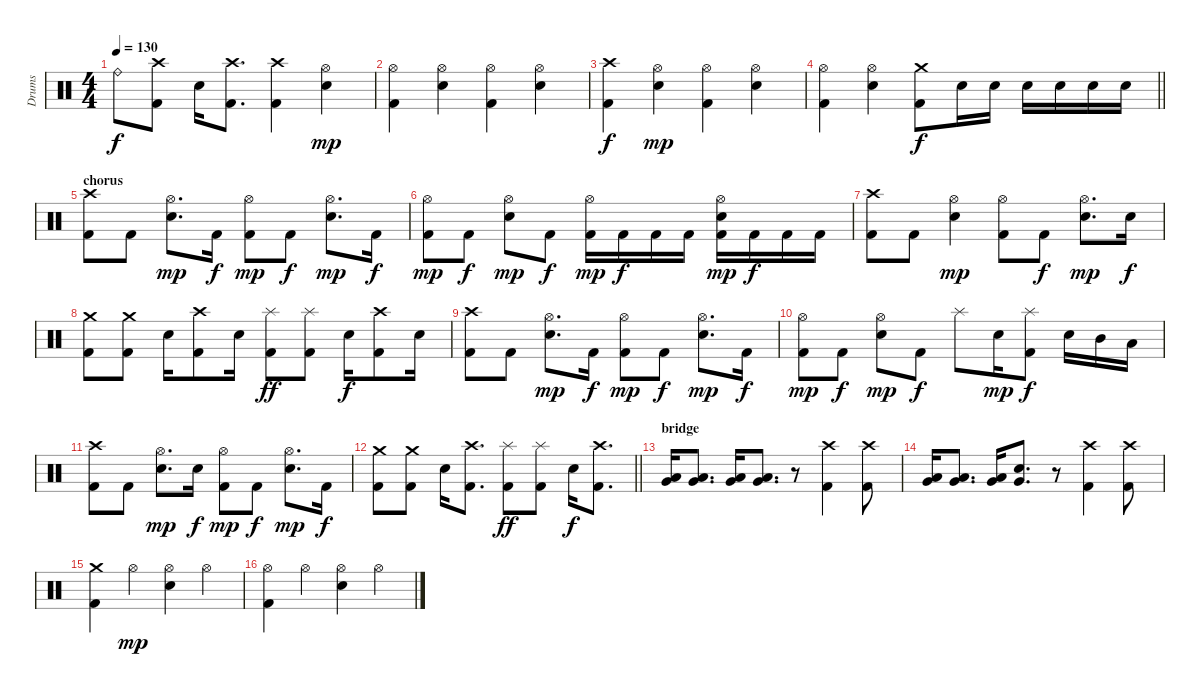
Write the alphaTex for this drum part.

\track ("Drums" "Drums") {instrument percussion}
\staff {score}
\articulation defaults
\ts (4 4)
\tempo 130
\clef neutral
\ks c "Ride (bell)".8{dy f}
("Crash high (hit)" "Kick (hit) 2").8 "Electric Snare (hit)".16 ("Crash high (hit)" "Kick (hit) 2").8{d} ("Crash high (hit)" "Kick (hit) 2").4 ("Hi-Hat (open)" "Electric Snare (hit)").4{dy mp} |
("Hi-Hat (open)" "Kick (hit) 2").4 ("Hi-Hat (open)" "Electric Snare (hit)").4 ("Hi-Hat (open)" "Kick (hit) 2").4 ("Hi-Hat (open)" "Electric Snare (hit)").4 |
("Crash high (hit)" "Kick (hit) 2").4{dy f} ("Hi-Hat (open)" "Electric Snare (hit)").4{dy mp} ("Hi-Hat (open)" "Kick (hit) 2").4 ("Hi-Hat (open)" "Electric Snare (hit)").4 |
\barLineRight lightlight
("Hi-Hat (open)" "Kick (hit) 2").4 ("Hi-Hat (open)" "Electric Snare (hit)").4 ("Crash medium (hit)" "Kick (hit) 2").8{dy f} "Electric Snare (hit)".16 "Electric Snare (hit)".16 "Electric Snare (hit)".16 "Electric Snare (hit)".16 "Electric Snare (hit)".16 "Electric Snare (hit)".16 |
\section ("" "chorus")
("Crash high (hit)" "Kick (hit) 2").8 "Kick (hit) 2".8 ("Hi-Hat (open)" "Electric Snare (hit)").8{d dy mp} "Kick (hit) 2".16{dy f} ("Hi-Hat (open)" "Kick (hit) 2").8{dy mp} "Kick (hit) 2".8{dy f} ("Hi-Hat (open)" "Electric Snare (hit)").8{d dy mp} "Kick (hit) 2".16{dy f} |
("Hi-Hat (open)" "Kick (hit) 2").8{dy mp} "Kick (hit) 2".8{dy f} ("Hi-Hat (open)" "Electric Snare (hit)").8{dy mp} "Kick (hit) 2".8{dy f} ("Hi-Hat (open)" "Kick (hit) 2").16{dy mp} "Kick (hit) 2".16{dy f} "Kick (hit) 2".16 "Kick (hit) 2".16 ("Hi-Hat (open)" "Electric Snare (hit)" "Kick (hit) 2").16{dy mp} "Kick (hit) 2".16{dy f} "Kick (hit) 2".16 "Kick (hit) 2".16 |
("Crash high (hit)" "Kick (hit) 2").8 "Kick (hit) 2".8 ("Hi-Hat (open)" "Electric Snare (hit)").4{dy mp} ("Hi-Hat (open)" "Kick (hit) 2").8 "Kick (hit) 2".8{dy f} ("Hi-Hat (open)" "Electric Snare (hit)").8{d dy mp} "Electric Snare (hit)".16{dy f} |
("Crash medium (hit)" "Kick (hit) 2").8 ("Crash medium (hit)" "Kick (hit) 2").8 "Electric Snare (hit)".16 ("Crash high (hit)" "Kick (hit) 2").8 "Electric Snare (hit)".16 ("Splash (hit)" "Kick (hit) 2").8{dy ff} ("Splash (hit)" "Kick (hit) 2").8 "Electric Snare (hit)".16{dy f} ("Crash high (hit)" "Kick (hit) 2").8 "Electric Snare (hit)".16 |
("Crash high (hit)" "Kick (hit) 2").8 "Kick (hit) 2".8 ("Hi-Hat (open)" "Electric Snare (hit)").8{d dy mp} "Kick (hit) 2".16{dy f} ("Hi-Hat (open)" "Kick (hit) 2").8{dy mp} "Kick (hit) 2".8{dy f} ("Hi-Hat (open)" "Electric Snare (hit)").8{d dy mp} "Kick (hit) 2".16{dy f} |
("Hi-Hat (open)" "Kick (hit) 2").8{dy mp} "Kick (hit) 2".8{dy f} ("Hi-Hat (open)" "Electric Snare (hit)").8{dy mp} "Kick (hit) 2".8{dy f} "Splash (hit)".8 "Electric Snare (hit)".16{dy mp} ("Splash (hit)" "Kick (hit) 2").8{dy f} "Electric Snare (hit)".16 "Mid Tom (hit)".16 "Low Tom (hit)".16 |
("Crash high (hit)" "Kick (hit) 2").8 "Kick (hit) 2".8 ("Hi-Hat (open)" "Electric Snare (hit)").8{d dy mp} "Electric Snare (hit)".16{dy f} ("Hi-Hat (open)" "Kick (hit) 2").8{dy mp} "Kick (hit) 2".8{dy f} ("Hi-Hat (open)" "Electric Snare (hit)").8{d dy mp} "Kick (hit) 2".16{dy f} |
\barLineRight lightlight
("Crash medium (hit)" "Kick (hit) 2").8 ("Crash medium (hit)" "Kick (hit) 2").8 "Electric Snare (hit)".16 ("Crash high (hit)" "Kick (hit) 2").8{d} ("Splash (hit)" "Kick (hit) 2").8{dy ff} ("Splash (hit)" "Kick (hit) 2").8 "Electric Snare (hit)".16{dy f} ("Crash high (hit)" "Kick (hit) 2").8{d} |
\section ("" "bridge")
("Very Low Tom (hit)" "Low Floor Tom (hit)").16 ("Very Low Tom (hit)" "Low Floor Tom (hit)").8{d} ("Very Low Tom (hit)" "Low Floor Tom (hit)").16 ("Very Low Tom (hit)" "Low Floor Tom (hit)").8{d} r.8 ("Crash high (hit)" "Kick (hit) 2").4 ("Crash high (hit)" "Kick (hit) 2").8 |
("Very Low Tom (hit)" "Low Floor Tom (hit)").16 ("Very Low Tom (hit)" "Low Floor Tom (hit)").8{d} ("Very Low Tom (hit)" "Low Floor Tom (hit)").16 ("Very Low Tom (hit)" "Snare (hit)").8{d} r.8 ("Crash high (hit)" "Kick (hit) 2").4 ("Crash high (hit)" "Kick (hit) 2").8 |
("Crash medium (hit)" "Kick (hit) 2").4 "Hi-Hat (open)".4{dy mp} ("Hi-Hat (open)" "Electric Snare (hit)").4 "Hi-Hat (open)".4 |
("Hi-Hat (open)" "Kick (hit) 2").4 "Hi-Hat (open)".4 ("Hi-Hat (open)" "Electric Snare (hit)").4 "Hi-Hat (open)".4
